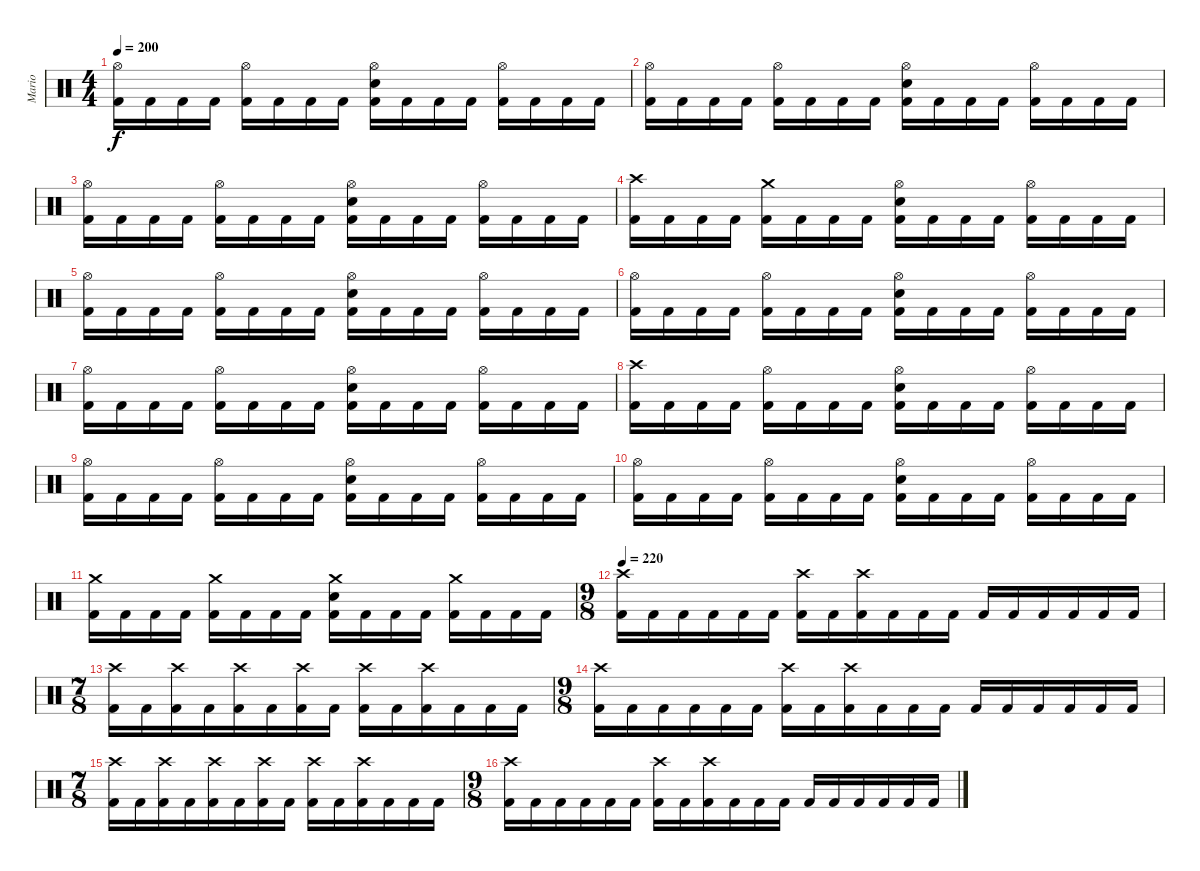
\track ("Mario" "Mario") {instrument percussion}
\staff {score}
\articulation defaults
\ts (4 4)
\tempo 200
\clef neutral
\ks c
("Hi-Hat (open)" "Kick (hit) 2").16{dy f} "Kick (hit) 2".16 "Kick (hit) 2".16 "Kick (hit) 2".16 ("Hi-Hat (open)" "Kick (hit) 2").16 "Kick (hit) 2".16 "Kick (hit) 2".16 "Kick (hit) 2".16 ("Hi-Hat (open)" "Electric Snare (hit)" "Kick (hit) 2").16 "Kick (hit) 2".16 "Kick (hit) 2".16 "Kick (hit) 2".16 ("Hi-Hat (open)" "Kick (hit) 2").16 "Kick (hit) 2".16 "Kick (hit) 2".16 "Kick (hit) 2".16 |
("Hi-Hat (open)" "Kick (hit) 2").16 "Kick (hit) 2".16 "Kick (hit) 2".16 "Kick (hit) 2".16 ("Hi-Hat (open)" "Kick (hit) 2").16 "Kick (hit) 2".16 "Kick (hit) 2".16 "Kick (hit) 2".16 ("Hi-Hat (open)" "Electric Snare (hit)" "Kick (hit) 2").16 "Kick (hit) 2".16 "Kick (hit) 2".16 "Kick (hit) 2".16 ("Hi-Hat (open)" "Kick (hit) 2").16 "Kick (hit) 2".16 "Kick (hit) 2".16 "Kick (hit) 2".16 |
("Hi-Hat (open)" "Kick (hit) 2").16 "Kick (hit) 2".16 "Kick (hit) 2".16 "Kick (hit) 2".16 ("Hi-Hat (open)" "Kick (hit) 2").16 "Kick (hit) 2".16 "Kick (hit) 2".16 "Kick (hit) 2".16 ("Hi-Hat (open)" "Electric Snare (hit)" "Kick (hit) 2").16 "Kick (hit) 2".16 "Kick (hit) 2".16 "Kick (hit) 2".16 ("Hi-Hat (open)" "Kick (hit) 2").16 "Kick (hit) 2".16 "Kick (hit) 2".16 "Kick (hit) 2".16 |
("Crash high (hit)" "Kick (hit) 2").16 "Kick (hit) 2".16 "Kick (hit) 2".16 "Kick (hit) 2".16 ("Crash medium (hit)" "Kick (hit) 2").16 "Kick (hit) 2".16 "Kick (hit) 2".16 "Kick (hit) 2".16 ("Hi-Hat (open)" "Electric Snare (hit)" "Kick (hit) 2").16 "Kick (hit) 2".16 "Kick (hit) 2".16 "Kick (hit) 2".16 ("Hi-Hat (open)" "Kick (hit) 2").16 "Kick (hit) 2".16 "Kick (hit) 2".16 "Kick (hit) 2".16 |
("Hi-Hat (open)" "Kick (hit) 2").16 "Kick (hit) 2".16 "Kick (hit) 2".16 "Kick (hit) 2".16 ("Hi-Hat (open)" "Kick (hit) 2").16 "Kick (hit) 2".16 "Kick (hit) 2".16 "Kick (hit) 2".16 ("Hi-Hat (open)" "Electric Snare (hit)" "Kick (hit) 2").16 "Kick (hit) 2".16 "Kick (hit) 2".16 "Kick (hit) 2".16 ("Hi-Hat (open)" "Kick (hit) 2").16 "Kick (hit) 2".16 "Kick (hit) 2".16 "Kick (hit) 2".16 |
("Hi-Hat (open)" "Kick (hit) 2").16 "Kick (hit) 2".16 "Kick (hit) 2".16 "Kick (hit) 2".16 ("Hi-Hat (open)" "Kick (hit) 2").16 "Kick (hit) 2".16 "Kick (hit) 2".16 "Kick (hit) 2".16 ("Hi-Hat (open)" "Electric Snare (hit)" "Kick (hit) 2").16 "Kick (hit) 2".16 "Kick (hit) 2".16 "Kick (hit) 2".16 ("Hi-Hat (open)" "Kick (hit) 2").16 "Kick (hit) 2".16 "Kick (hit) 2".16 "Kick (hit) 2".16 |
("Hi-Hat (open)" "Kick (hit) 2").16 "Kick (hit) 2".16 "Kick (hit) 2".16 "Kick (hit) 2".16 ("Hi-Hat (open)" "Kick (hit) 2").16 "Kick (hit) 2".16 "Kick (hit) 2".16 "Kick (hit) 2".16 ("Hi-Hat (open)" "Electric Snare (hit)" "Kick (hit) 2").16 "Kick (hit) 2".16 "Kick (hit) 2".16 "Kick (hit) 2".16 ("Hi-Hat (open)" "Kick (hit) 2").16 "Kick (hit) 2".16 "Kick (hit) 2".16 "Kick (hit) 2".16 |
("Crash high (hit)" "Kick (hit) 2").16 "Kick (hit) 2".16 "Kick (hit) 2".16 "Kick (hit) 2".16 ("Hi-Hat (open)" "Kick (hit) 2").16 "Kick (hit) 2".16 "Kick (hit) 2".16 "Kick (hit) 2".16 ("Hi-Hat (open)" "Electric Snare (hit)" "Kick (hit) 2").16 "Kick (hit) 2".16 "Kick (hit) 2".16 "Kick (hit) 2".16 ("Hi-Hat (open)" "Kick (hit) 2").16 "Kick (hit) 2".16 "Kick (hit) 2".16 "Kick (hit) 2".16 |
("Hi-Hat (open)" "Kick (hit) 2").16 "Kick (hit) 2".16 "Kick (hit) 2".16 "Kick (hit) 2".16 ("Hi-Hat (open)" "Kick (hit) 2").16 "Kick (hit) 2".16 "Kick (hit) 2".16 "Kick (hit) 2".16 ("Hi-Hat (open)" "Electric Snare (hit)" "Kick (hit) 2").16 "Kick (hit) 2".16 "Kick (hit) 2".16 "Kick (hit) 2".16 ("Hi-Hat (open)" "Kick (hit) 2").16 "Kick (hit) 2".16 "Kick (hit) 2".16 "Kick (hit) 2".16 |
("Hi-Hat (open)" "Kick (hit) 2").16 "Kick (hit) 2".16 "Kick (hit) 2".16 "Kick (hit) 2".16 ("Hi-Hat (open)" "Kick (hit) 2").16 "Kick (hit) 2".16 "Kick (hit) 2".16 "Kick (hit) 2".16 ("Hi-Hat (open)" "Electric Snare (hit)" "Kick (hit) 2").16 "Kick (hit) 2".16 "Kick (hit) 2".16 "Kick (hit) 2".16 ("Hi-Hat (open)" "Kick (hit) 2").16 "Kick (hit) 2".16 "Kick (hit) 2".16 "Kick (hit) 2".16 |
("Crash medium (hit)" "Kick (hit) 2").16 "Kick (hit) 2".16 "Kick (hit) 2".16 "Kick (hit) 2".16 ("Crash medium (hit)" "Kick (hit) 2").16 "Kick (hit) 2".16 "Kick (hit) 2".16 "Kick (hit) 2".16 ("Crash medium (hit)" "Electric Snare (hit)" "Kick (hit) 2").16 "Kick (hit) 2".16 "Kick (hit) 2".16 "Kick (hit) 2".16 ("Crash medium (hit)" "Kick (hit) 2").16 "Kick (hit) 2".16 "Kick (hit) 2".16 "Kick (hit) 2".16 |
\ts (9 8)
\tempo 220
("Crash high (hit)" "Kick (hit) 2").16 "Kick (hit) 2".16 "Kick (hit) 2".16 "Kick (hit) 2".16 "Kick (hit) 2".16 "Kick (hit) 2".16 ("Crash high (hit)" "Kick (hit) 2").16 "Kick (hit) 2".16 ("Crash high (hit)" "Kick (hit) 2").16 "Kick (hit) 2".16 "Kick (hit) 2".16 "Kick (hit) 2".16 "Kick (hit) 2".16 "Kick (hit) 2".16 "Kick (hit) 2".16 "Kick (hit) 2".16 "Kick (hit) 2".16 "Kick (hit) 2".16 |
\ts (7 8)
("Crash high (hit)" "Kick (hit) 2").16 "Kick (hit) 2".16 ("Crash high (hit)" "Kick (hit) 2").16 "Kick (hit) 2".16 ("Crash high (hit)" "Kick (hit) 2").16 "Kick (hit) 2".16 ("Crash high (hit)" "Kick (hit) 2").16 "Kick (hit) 2".16 ("Crash high (hit)" "Kick (hit) 2").16 "Kick (hit) 2".16 ("Crash high (hit)" "Kick (hit) 2").16 "Kick (hit) 2".16 "Kick (hit) 2".16 "Kick (hit) 2".16 |
\ts (9 8)
("Crash high (hit)" "Kick (hit) 2").16 "Kick (hit) 2".16 "Kick (hit) 2".16 "Kick (hit) 2".16 "Kick (hit) 2".16 "Kick (hit) 2".16 ("Crash high (hit)" "Kick (hit) 2").16 "Kick (hit) 2".16 ("Crash high (hit)" "Kick (hit) 2").16 "Kick (hit) 2".16 "Kick (hit) 2".16 "Kick (hit) 2".16 "Kick (hit) 2".16 "Kick (hit) 2".16 "Kick (hit) 2".16 "Kick (hit) 2".16 "Kick (hit) 2".16 "Kick (hit) 2".16 |
\ts (7 8)
("Crash high (hit)" "Kick (hit) 2").16 "Kick (hit) 2".16 ("Crash high (hit)" "Kick (hit) 2").16 "Kick (hit) 2".16 ("Crash high (hit)" "Kick (hit) 2").16 "Kick (hit) 2".16 ("Crash high (hit)" "Kick (hit) 2").16 "Kick (hit) 2".16 ("Crash high (hit)" "Kick (hit) 2").16 "Kick (hit) 2".16 ("Crash high (hit)" "Kick (hit) 2").16 "Kick (hit) 2".16 "Kick (hit) 2".16 "Kick (hit) 2".16 |
\ts (9 8)
("Crash high (hit)" "Kick (hit) 2").16 "Kick (hit) 2".16 "Kick (hit) 2".16 "Kick (hit) 2".16 "Kick (hit) 2".16 "Kick (hit) 2".16 ("Crash high (hit)" "Kick (hit) 2").16 "Kick (hit) 2".16 ("Crash high (hit)" "Kick (hit) 2").16 "Kick (hit) 2".16 "Kick (hit) 2".16 "Kick (hit) 2".16 "Kick (hit) 2".16 "Kick (hit) 2".16 "Kick (hit) 2".16 "Kick (hit) 2".16 "Kick (hit) 2".16 "Kick (hit) 2".16
